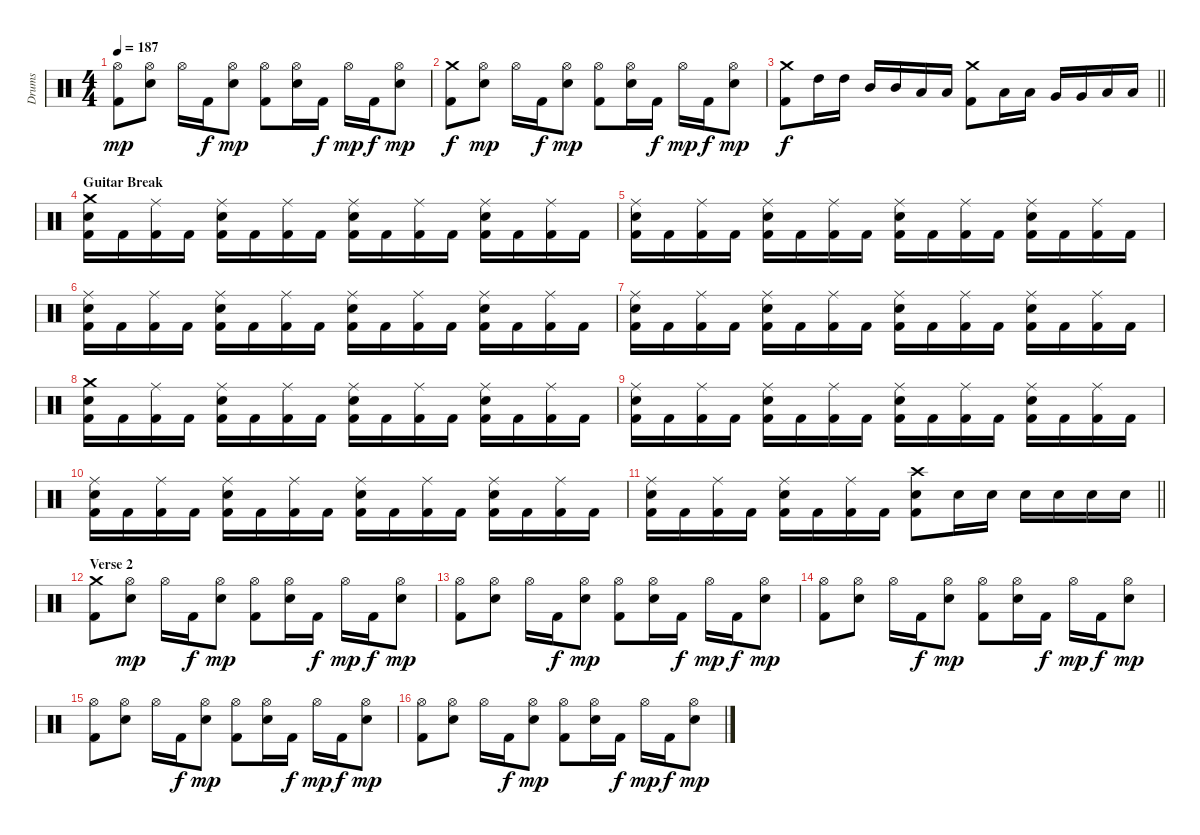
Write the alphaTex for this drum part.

\track ("Drums" "Drums") {instrument percussion}
\staff {score}
\articulation defaults
\ts (4 4)
\tempo 187
\clef neutral
\ks c
("Hi-Hat (open)" "Kick (hit) 2").8{dy mp} ("Hi-Hat (open)" "Snare (hit) 2").8 "Hi-Hat (open)".16 "Kick (hit) 2".16{dy f} ("Hi-Hat (open)" "Snare (hit) 2").8{dy mp} ("Hi-Hat (open)" "Kick (hit) 2").8 ("Hi-Hat (open)" "Snare (hit) 2").16 "Kick (hit) 2".16{dy f} "Hi-Hat (open)".16{dy mp} "Kick (hit) 2".16{dy f} ("Hi-Hat (open)" "Snare (hit) 2").8{dy mp} |
("Crash medium (hit)" "Kick (hit) 2").8{dy f} ("Hi-Hat (open)" "Snare (hit) 2").8{dy mp} "Hi-Hat (open)".16 "Kick (hit) 2".16{dy f} ("Hi-Hat (open)" "Snare (hit) 2").8{dy mp} ("Hi-Hat (open)" "Kick (hit) 2").8 ("Hi-Hat (open)" "Snare (hit) 2").16 "Kick (hit) 2".16{dy f} "Hi-Hat (open)".16{dy mp} "Kick (hit) 2".16{dy f} ("Hi-Hat (open)" "Snare (hit) 2").8{dy mp} |
\barLineRight lightlight
("Crash medium (hit)" "Kick (hit) 2").8{dy f} "High Tom (hit)".16 "High Tom (hit)".16 "Mid Tom (hit)".16 "Mid Tom (hit)".16 "Low Tom (hit)".16 "Low Tom (hit)".16 ("Crash medium (hit)" "Kick (hit) 2").8 "Low Tom (hit)".16 "Low Tom (hit)".16 "Very Low Tom (hit)".16 "Very Low Tom (hit)".16 "Low Floor Tom (hit)".16 "Low Floor Tom (hit)".16 |
\section ("" "Guitar Break")
("Crash medium (hit)" "Snare (hit) 2" "Kick (hit) 2").16 "Kick (hit) 2".16 ("Ride (middle)" "Kick (hit) 2").16 "Kick (hit) 2".16 ("Ride (middle)" "Snare (hit) 2" "Kick (hit) 2").16 "Kick (hit) 2".16 ("Ride (middle)" "Kick (hit) 2").16 "Kick (hit) 2".16 ("Ride (middle)" "Snare (hit) 2" "Kick (hit) 2").16 "Kick (hit) 2".16 ("Ride (middle)" "Kick (hit) 2").16 "Kick (hit) 2".16 ("Ride (middle)" "Snare (hit) 2" "Kick (hit) 2").16 "Kick (hit) 2".16 ("Ride (middle)" "Kick (hit) 2").16 "Kick (hit) 2".16 |
("Ride (middle)" "Snare (hit) 2" "Kick (hit) 2").16 "Kick (hit) 2".16 ("Ride (middle)" "Kick (hit) 2").16 "Kick (hit) 2".16 ("Ride (middle)" "Snare (hit) 2" "Kick (hit) 2").16 "Kick (hit) 2".16 ("Ride (middle)" "Kick (hit) 2").16 "Kick (hit) 2".16 ("Ride (middle)" "Snare (hit) 2" "Kick (hit) 2").16 "Kick (hit) 2".16 ("Ride (middle)" "Kick (hit) 2").16 "Kick (hit) 2".16 ("Ride (middle)" "Snare (hit) 2" "Kick (hit) 2").16 "Kick (hit) 2".16 ("Ride (middle)" "Kick (hit) 2").16 "Kick (hit) 2".16 |
("Ride (middle)" "Snare (hit) 2" "Kick (hit) 2").16 "Kick (hit) 2".16 ("Ride (middle)" "Kick (hit) 2").16 "Kick (hit) 2".16 ("Ride (middle)" "Snare (hit) 2" "Kick (hit) 2").16 "Kick (hit) 2".16 ("Ride (middle)" "Kick (hit) 2").16 "Kick (hit) 2".16 ("Ride (middle)" "Snare (hit) 2" "Kick (hit) 2").16 "Kick (hit) 2".16 ("Ride (middle)" "Kick (hit) 2").16 "Kick (hit) 2".16 ("Ride (middle)" "Snare (hit) 2" "Kick (hit) 2").16 "Kick (hit) 2".16 ("Ride (middle)" "Kick (hit) 2").16 "Kick (hit) 2".16 |
("Ride (middle)" "Snare (hit) 2" "Kick (hit) 2").16 "Kick (hit) 2".16 ("Ride (middle)" "Kick (hit) 2").16 "Kick (hit) 2".16 ("Ride (middle)" "Snare (hit) 2" "Kick (hit) 2").16 "Kick (hit) 2".16 ("Ride (middle)" "Kick (hit) 2").16 "Kick (hit) 2".16 ("Ride (middle)" "Snare (hit) 2" "Kick (hit) 2").16 "Kick (hit) 2".16 ("Ride (middle)" "Kick (hit) 2").16 "Kick (hit) 2".16 ("Ride (middle)" "Snare (hit) 2" "Kick (hit) 2").16 "Kick (hit) 2".16 ("Ride (middle)" "Kick (hit) 2").16 "Kick (hit) 2".16 |
("Crash medium (hit)" "Snare (hit) 2" "Kick (hit) 2").16 "Kick (hit) 2".16 ("Ride (middle)" "Kick (hit) 2").16 "Kick (hit) 2".16 ("Ride (middle)" "Snare (hit) 2" "Kick (hit) 2").16 "Kick (hit) 2".16 ("Ride (middle)" "Kick (hit) 2").16 "Kick (hit) 2".16 ("Ride (middle)" "Snare (hit) 2" "Kick (hit) 2").16 "Kick (hit) 2".16 ("Ride (middle)" "Kick (hit) 2").16 "Kick (hit) 2".16 ("Ride (middle)" "Snare (hit) 2" "Kick (hit) 2").16 "Kick (hit) 2".16 ("Ride (middle)" "Kick (hit) 2").16 "Kick (hit) 2".16 |
("Ride (middle)" "Snare (hit) 2" "Kick (hit) 2").16 "Kick (hit) 2".16 ("Ride (middle)" "Kick (hit) 2").16 "Kick (hit) 2".16 ("Ride (middle)" "Snare (hit) 2" "Kick (hit) 2").16 "Kick (hit) 2".16 ("Ride (middle)" "Kick (hit) 2").16 "Kick (hit) 2".16 ("Ride (middle)" "Snare (hit) 2" "Kick (hit) 2").16 "Kick (hit) 2".16 ("Ride (middle)" "Kick (hit) 2").16 "Kick (hit) 2".16 ("Ride (middle)" "Snare (hit) 2" "Kick (hit) 2").16 "Kick (hit) 2".16 ("Ride (middle)" "Kick (hit) 2").16 "Kick (hit) 2".16 |
("Ride (middle)" "Snare (hit) 2" "Kick (hit) 2").16 "Kick (hit) 2".16 ("Ride (middle)" "Kick (hit) 2").16 "Kick (hit) 2".16 ("Ride (middle)" "Snare (hit) 2" "Kick (hit) 2").16 "Kick (hit) 2".16 ("Ride (middle)" "Kick (hit) 2").16 "Kick (hit) 2".16 ("Ride (middle)" "Snare (hit) 2" "Kick (hit) 2").16 "Kick (hit) 2".16 ("Ride (middle)" "Kick (hit) 2").16 "Kick (hit) 2".16 ("Ride (middle)" "Snare (hit) 2" "Kick (hit) 2").16 "Kick (hit) 2".16 ("Ride (middle)" "Kick (hit) 2").16 "Kick (hit) 2".16 |
\barLineRight lightlight
("Ride (middle)" "Snare (hit) 2" "Kick (hit) 2").16 "Kick (hit) 2".16 ("Ride (middle)" "Kick (hit) 2").16 "Kick (hit) 2".16 ("Ride (middle)" "Snare (hit) 2" "Kick (hit) 2").16 "Kick (hit) 2".16 ("Ride (middle)" "Kick (hit) 2").16 "Kick (hit) 2".16 ("Crash high (hit)" "Snare (hit) 2" "Kick (hit) 2").8 "Snare (hit) 2".16 "Snare (hit) 2".16 "Snare (hit) 2".16 "Snare (hit) 2".16 "Snare (hit) 2".16 "Snare (hit) 2".16 |
\section ("" "Verse 2")
("Crash medium (hit)" "Kick (hit) 2").8 ("Hi-Hat (open)" "Snare (hit) 2").8{dy mp} "Hi-Hat (open)".16 "Kick (hit) 2".16{dy f} ("Hi-Hat (open)" "Snare (hit) 2").8{dy mp} ("Hi-Hat (open)" "Kick (hit) 2").8 ("Hi-Hat (open)" "Snare (hit) 2").16 "Kick (hit) 2".16{dy f} "Hi-Hat (open)".16{dy mp} "Kick (hit) 2".16{dy f} ("Hi-Hat (open)" "Snare (hit) 2").8{dy mp} |
("Hi-Hat (open)" "Kick (hit) 2").8 ("Hi-Hat (open)" "Snare (hit) 2").8 "Hi-Hat (open)".16 "Kick (hit) 2".16{dy f} ("Hi-Hat (open)" "Snare (hit) 2").8{dy mp} ("Hi-Hat (open)" "Kick (hit) 2").8 ("Hi-Hat (open)" "Snare (hit) 2").16 "Kick (hit) 2".16{dy f} "Hi-Hat (open)".16{dy mp} "Kick (hit) 2".16{dy f} ("Hi-Hat (open)" "Snare (hit) 2").8{dy mp} |
("Hi-Hat (open)" "Kick (hit) 2").8 ("Hi-Hat (open)" "Snare (hit) 2").8 "Hi-Hat (open)".16 "Kick (hit) 2".16{dy f} ("Hi-Hat (open)" "Snare (hit) 2").8{dy mp} ("Hi-Hat (open)" "Kick (hit) 2").8 ("Hi-Hat (open)" "Snare (hit) 2").16 "Kick (hit) 2".16{dy f} "Hi-Hat (open)".16{dy mp} "Kick (hit) 2".16{dy f} ("Hi-Hat (open)" "Snare (hit) 2").8{dy mp} |
("Hi-Hat (open)" "Kick (hit) 2").8 ("Hi-Hat (open)" "Snare (hit) 2").8 "Hi-Hat (open)".16 "Kick (hit) 2".16{dy f} ("Hi-Hat (open)" "Snare (hit) 2").8{dy mp} ("Hi-Hat (open)" "Kick (hit) 2").8 ("Hi-Hat (open)" "Snare (hit) 2").16 "Kick (hit) 2".16{dy f} "Hi-Hat (open)".16{dy mp} "Kick (hit) 2".16{dy f} ("Hi-Hat (open)" "Snare (hit) 2").8{dy mp} |
("Hi-Hat (open)" "Kick (hit) 2").8 ("Hi-Hat (open)" "Snare (hit) 2").8 "Hi-Hat (open)".16 "Kick (hit) 2".16{dy f} ("Hi-Hat (open)" "Snare (hit) 2").8{dy mp} ("Hi-Hat (open)" "Kick (hit) 2").8 ("Hi-Hat (open)" "Snare (hit) 2").16 "Kick (hit) 2".16{dy f} "Hi-Hat (open)".16{dy mp} "Kick (hit) 2".16{dy f} ("Hi-Hat (open)" "Snare (hit) 2").8{dy mp}
